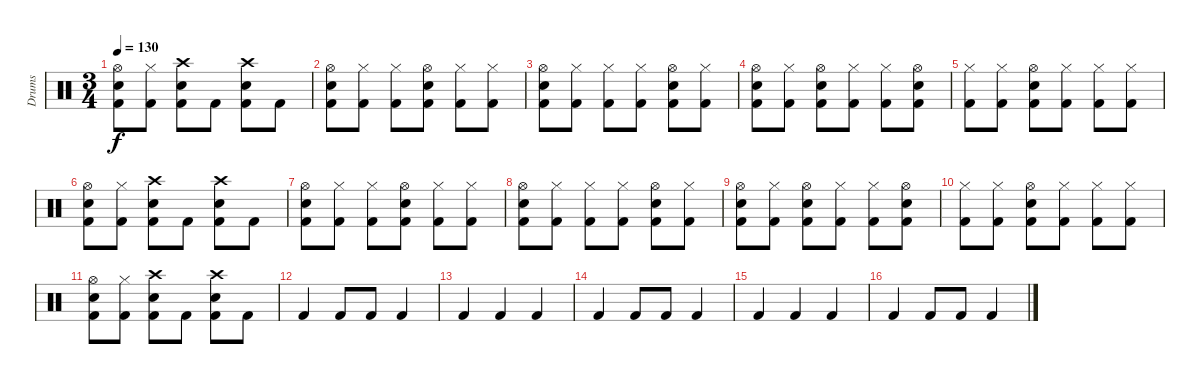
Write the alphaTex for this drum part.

\track ("Drums" "Drums") {instrument percussion}
\staff {score}
\articulation defaults
\ts (3 4)
\tempo 130
\clef neutral
\ks c
("Hi-Hat (open)" "Snare (hit) 2" "Kick (hit) 2").8{dy f} ("Hi-Hat (closed)" "Kick (hit) 2").8 ("Crash high (hit)" "Snare (hit) 2" "Kick (hit) 2").8 "Kick (hit) 2".8 ("Crash high (hit)" "Snare (hit) 2" "Kick (hit) 2").8 "Kick (hit) 2".8 |
("Hi-Hat (open)" "Snare (hit) 2" "Kick (hit) 2").8 ("Hi-Hat (closed)" "Kick (hit) 2").8 ("Hi-Hat (closed)" "Kick (hit) 2").8 ("Hi-Hat (open)" "Snare (hit) 2" "Kick (hit) 2").8 ("Hi-Hat (closed)" "Kick (hit) 2").8 ("Hi-Hat (closed)" "Kick (hit) 2").8 |
("Hi-Hat (open)" "Snare (hit) 2" "Kick (hit) 2").8 ("Hi-Hat (closed)" "Kick (hit) 2").8 ("Hi-Hat (closed)" "Kick (hit) 2").8 ("Hi-Hat (closed)" "Kick (hit) 2").8 ("Hi-Hat (open)" "Snare (hit) 2" "Kick (hit) 2").8 ("Hi-Hat (closed)" "Kick (hit) 2").8 |
("Hi-Hat (open)" "Snare (hit) 2" "Kick (hit) 2").8 ("Hi-Hat (closed)" "Kick (hit) 2").8 ("Hi-Hat (open)" "Snare (hit) 2" "Kick (hit) 2").8 ("Hi-Hat (closed)" "Kick (hit) 2").8 ("Hi-Hat (closed)" "Kick (hit) 2").8 ("Hi-Hat (open)" "Snare (hit) 2" "Kick (hit) 2").8 |
("Hi-Hat (closed)" "Kick (hit) 2").8 ("Hi-Hat (closed)" "Kick (hit) 2").8 ("Hi-Hat (open)" "Snare (hit) 2" "Kick (hit) 2").8 ("Hi-Hat (closed)" "Kick (hit) 2").8 ("Hi-Hat (closed)" "Kick (hit) 2").8 ("Hi-Hat (closed)" "Kick (hit) 2").8 |
("Hi-Hat (open)" "Snare (hit) 2" "Kick (hit) 2").8 ("Hi-Hat (closed)" "Kick (hit) 2").8 ("Crash high (hit)" "Snare (hit) 2" "Kick (hit) 2").8 "Kick (hit) 2".8 ("Crash high (hit)" "Snare (hit) 2" "Kick (hit) 2").8 "Kick (hit) 2".8 |
("Hi-Hat (open)" "Snare (hit) 2" "Kick (hit) 2").8 ("Hi-Hat (closed)" "Kick (hit) 2").8 ("Hi-Hat (closed)" "Kick (hit) 2").8 ("Hi-Hat (open)" "Snare (hit) 2" "Kick (hit) 2").8 ("Hi-Hat (closed)" "Kick (hit) 2").8 ("Hi-Hat (closed)" "Kick (hit) 2").8 |
("Hi-Hat (open)" "Snare (hit) 2" "Kick (hit) 2").8 ("Hi-Hat (closed)" "Kick (hit) 2").8 ("Hi-Hat (closed)" "Kick (hit) 2").8 ("Hi-Hat (closed)" "Kick (hit) 2").8 ("Hi-Hat (open)" "Snare (hit) 2" "Kick (hit) 2").8 ("Hi-Hat (closed)" "Kick (hit) 2").8 |
("Hi-Hat (open)" "Snare (hit) 2" "Kick (hit) 2").8 ("Hi-Hat (closed)" "Kick (hit) 2").8 ("Hi-Hat (open)" "Snare (hit) 2" "Kick (hit) 2").8 ("Hi-Hat (closed)" "Kick (hit) 2").8 ("Hi-Hat (closed)" "Kick (hit) 2").8 ("Hi-Hat (open)" "Snare (hit) 2" "Kick (hit) 2").8 |
("Hi-Hat (closed)" "Kick (hit) 2").8 ("Hi-Hat (closed)" "Kick (hit) 2").8 ("Hi-Hat (open)" "Snare (hit) 2" "Kick (hit) 2").8 ("Hi-Hat (closed)" "Kick (hit) 2").8 ("Hi-Hat (closed)" "Kick (hit) 2").8 ("Hi-Hat (closed)" "Kick (hit) 2").8 |
("Hi-Hat (open)" "Snare (hit) 2" "Kick (hit) 2").8 ("Hi-Hat (closed)" "Kick (hit) 2").8 ("Crash high (hit)" "Snare (hit) 2" "Kick (hit) 2").8 "Kick (hit) 2".8 ("Crash high (hit)" "Snare (hit) 2" "Kick (hit) 2").8 "Kick (hit) 2".8 |
"Kick (hit) 2".4 "Kick (hit) 2".8 "Kick (hit) 2".8 "Kick (hit) 2".4 |
"Kick (hit) 2".4 "Kick (hit) 2".4 "Kick (hit) 2".4 |
"Kick (hit) 2".4 "Kick (hit) 2".8 "Kick (hit) 2".8 "Kick (hit) 2".4 |
"Kick (hit) 2".4 "Kick (hit) 2".4 "Kick (hit) 2".4 |
"Kick (hit) 2".4 "Kick (hit) 2".8 "Kick (hit) 2".8 "Kick (hit) 2".4
